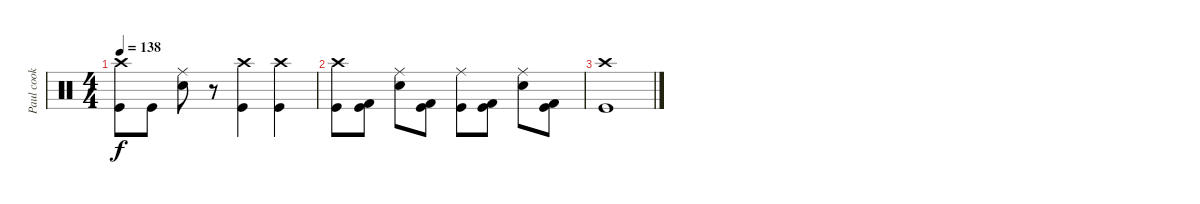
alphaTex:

\track ("Paul cook" "Paul cook") {instrument percussion}
\staff {score}
\articulation defaults
\ts (4 4)
\tempo 138
\clef neutral
\ks c
("Crash high (hit)" "Kick (hit)").8{dy f} "Kick (hit)".8 ("Ride (middle)" "Snare (hit) 2").8 r.8 ("Crash high (hit)" "Kick (hit)").4 ("Crash high (hit)" "Kick (hit)").4 |
("Crash high (hit)" "Kick (hit)").8 ("Kick (hit) 2" "Kick (hit)").8 ("Ride (middle)" "Snare (hit) 2").8 ("Kick (hit) 2" "Kick (hit)").8 ("Ride (middle)" "Kick (hit)").8 ("Kick (hit) 2" "Kick (hit)").8 ("Ride (middle)" "Snare (hit) 2").8 ("Kick (hit) 2" "Kick (hit)").8 |
("Crash high (hit)" "Kick (hit)").1
